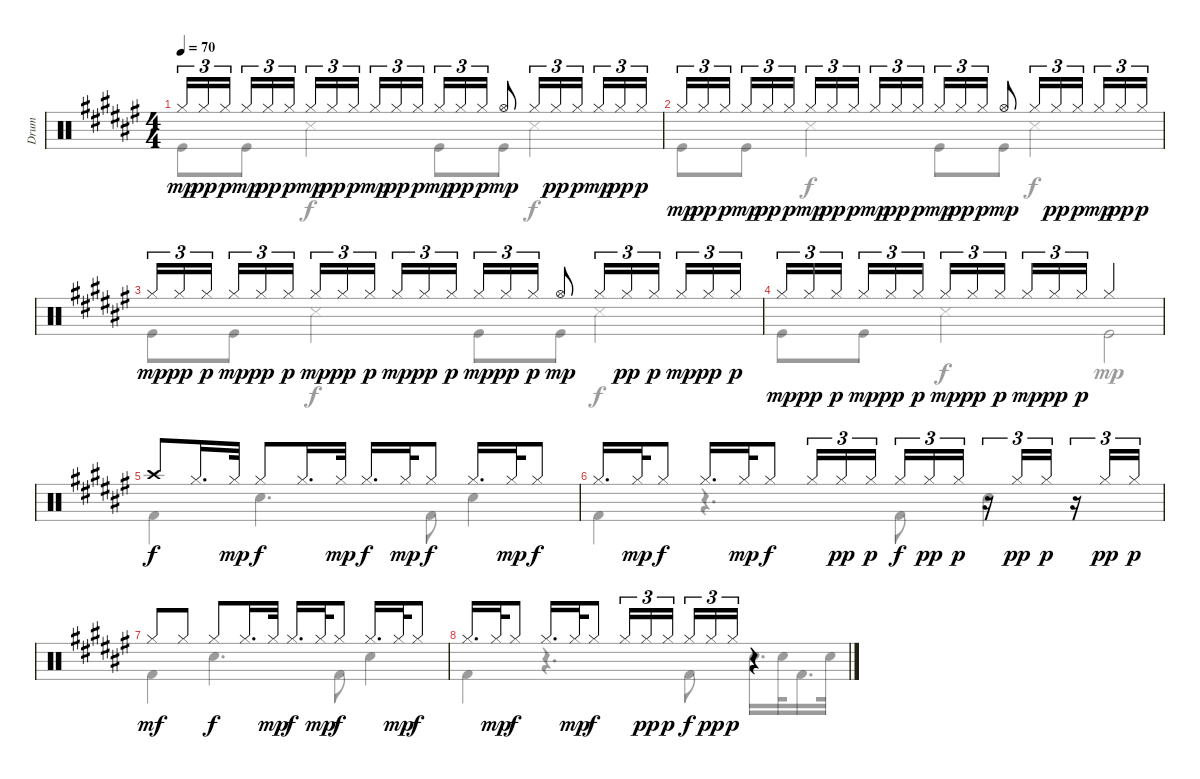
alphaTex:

\track ("Drum" "Drum") {instrument percussion}
\staff {score}
\articulation defaults
\voice
\ts (4 4)
\tempo 70
\clef neutral
\ks f# "Hi-Hat (closed)".16{tu (3 2) dy mp} "Hi-Hat (closed)".16{tu (3 2) dy pp} "Hi-Hat (closed)".16{tu (3 2) dy p beam splitsecondary} "Hi-Hat (closed)".16{tu (3 2) dy mp} "Hi-Hat (closed)".16{tu (3 2) dy pp} "Hi-Hat (closed)".16{tu (3 2) dy p} "Hi-Hat (closed)".16{tu (3 2) dy mp} "Hi-Hat (closed)".16{tu (3 2) dy pp} "Hi-Hat (closed)".16{tu (3 2) dy p beam splitsecondary} "Hi-Hat (closed)".16{tu (3 2) dy mp} "Hi-Hat (closed)".16{tu (3 2) dy pp} "Hi-Hat (closed)".16{tu (3 2) dy p} "Hi-Hat (closed)".16{tu (3 2) dy mp} "Hi-Hat (closed)".16{tu (3 2) dy pp} "Hi-Hat (closed)".16{tu (3 2) dy p} "Hi-Hat (open)".8{dy mp} "Hi-Hat (closed)".16{tu (3 2)} "Hi-Hat (closed)".16{tu (3 2) dy pp} "Hi-Hat (closed)".16{tu (3 2) dy p beam splitsecondary} "Hi-Hat (closed)".16{tu (3 2) dy mp} "Hi-Hat (closed)".16{tu (3 2) dy pp} "Hi-Hat (closed)".16{tu (3 2) dy p}
|
"Hi-Hat (closed)".16{tu (3 2) dy mp} "Hi-Hat (closed)".16{tu (3 2) dy pp} "Hi-Hat (closed)".16{tu (3 2) dy p beam splitsecondary} "Hi-Hat (closed)".16{tu (3 2) dy mp} "Hi-Hat (closed)".16{tu (3 2) dy pp} "Hi-Hat (closed)".16{tu (3 2) dy p} "Hi-Hat (closed)".16{tu (3 2) dy mp} "Hi-Hat (closed)".16{tu (3 2) dy pp} "Hi-Hat (closed)".16{tu (3 2) dy p beam splitsecondary} "Hi-Hat (closed)".16{tu (3 2) dy mp} "Hi-Hat (closed)".16{tu (3 2) dy pp} "Hi-Hat (closed)".16{tu (3 2) dy p} "Hi-Hat (closed)".16{tu (3 2) dy mp} "Hi-Hat (closed)".16{tu (3 2) dy pp} "Hi-Hat (closed)".16{tu (3 2) dy p} "Hi-Hat (open)".8{dy mp} "Hi-Hat (closed)".16{tu (3 2)} "Hi-Hat (closed)".16{tu (3 2) dy pp} "Hi-Hat (closed)".16{tu (3 2) dy p beam splitsecondary} "Hi-Hat (closed)".16{tu (3 2) dy mp} "Hi-Hat (closed)".16{tu (3 2) dy pp} "Hi-Hat (closed)".16{tu (3 2) dy p} |
"Hi-Hat (closed)".16{tu (3 2) dy mp} "Hi-Hat (closed)".16{tu (3 2) dy pp} "Hi-Hat (closed)".16{tu (3 2) dy p beam splitsecondary} "Hi-Hat (closed)".16{tu (3 2) dy mp} "Hi-Hat (closed)".16{tu (3 2) dy pp} "Hi-Hat (closed)".16{tu (3 2) dy p} "Hi-Hat (closed)".16{tu (3 2) dy mp} "Hi-Hat (closed)".16{tu (3 2) dy pp} "Hi-Hat (closed)".16{tu (3 2) dy p beam splitsecondary} "Hi-Hat (closed)".16{tu (3 2) dy mp} "Hi-Hat (closed)".16{tu (3 2) dy pp} "Hi-Hat (closed)".16{tu (3 2) dy p} "Hi-Hat (closed)".16{tu (3 2) dy mp} "Hi-Hat (closed)".16{tu (3 2) dy pp} "Hi-Hat (closed)".16{tu (3 2) dy p} "Hi-Hat (open)".8{dy mp} "Hi-Hat (closed)".16{tu (3 2)} "Hi-Hat (closed)".16{tu (3 2) dy pp} "Hi-Hat (closed)".16{tu (3 2) dy p beam splitsecondary} "Hi-Hat (closed)".16{tu (3 2) dy mp} "Hi-Hat (closed)".16{tu (3 2) dy pp} "Hi-Hat (closed)".16{tu (3 2) dy p} |
"Hi-Hat (closed)".16{tu (3 2) dy mp} "Hi-Hat (closed)".16{tu (3 2) dy pp} "Hi-Hat (closed)".16{tu (3 2) dy p beam splitsecondary} "Hi-Hat (closed)".16{tu (3 2) dy mp} "Hi-Hat (closed)".16{tu (3 2) dy pp} "Hi-Hat (closed)".16{tu (3 2) dy p} "Hi-Hat (closed)".16{tu (3 2) dy mp} "Hi-Hat (closed)".16{tu (3 2) dy pp} "Hi-Hat (closed)".16{tu (3 2) dy p beam splitsecondary} "Hi-Hat (closed)".16{tu (3 2) dy mp} "Hi-Hat (closed)".16{tu (3 2) dy pp} "Hi-Hat (closed)".16{tu (3 2) dy p} "Hi-Hat (closed)".2 |
"Crash high (hit)".8{dy f} "Hi-Hat (closed)".16{d} "Hi-Hat (closed)".32{dy mp} "Hi-Hat (closed)".8{dy f} "Hi-Hat (closed)".16{d} "Hi-Hat (closed)".32{dy mp} "Hi-Hat (closed)".16{d dy f} "Hi-Hat (closed)".32{dy mp} "Hi-Hat (closed)".8{dy f} "Hi-Hat (closed)".16{d} "Hi-Hat (closed)".32{dy mp} "Hi-Hat (closed)".8{dy f} |
"Hi-Hat (closed)".16{d} "Hi-Hat (closed)".32{dy mp} "Hi-Hat (closed)".8{dy f} "Hi-Hat (closed)".16{d} "Hi-Hat (closed)".32{dy mp} "Hi-Hat (closed)".8{dy f} "Hi-Hat (closed)".16{tu (3 2)} "Hi-Hat (closed)".16{tu (3 2) dy pp} "Hi-Hat (closed)".16{tu (3 2) dy p beam splitsecondary} "Hi-Hat (closed)".16{tu (3 2) dy f} "Hi-Hat (closed)".16{tu (3 2) dy pp} "Hi-Hat (closed)".16{tu (3 2) dy p} r.16{tu (3 2)} "Hi-Hat (closed)".16{tu (3 2) dy pp} "Hi-Hat (closed)".16{tu (3 2) dy p} r.16{tu (3 2)} "Hi-Hat (closed)".16{tu (3 2) dy pp} "Hi-Hat (closed)".16{tu (3 2) dy p} |
"Hi-Hat (closed)".8{dy mf} "Hi-Hat (closed)".8 "Hi-Hat (closed)".8{dy f} "Hi-Hat (closed)".16{d} "Hi-Hat (closed)".32{dy mp} "Hi-Hat (closed)".16{d dy f} "Hi-Hat (closed)".32{dy mp} "Hi-Hat (closed)".8{dy f} "Hi-Hat (closed)".16{d} "Hi-Hat (closed)".32{dy mp} "Hi-Hat (closed)".8{dy f} |
"Hi-Hat (closed)".16{d} "Hi-Hat (closed)".32{dy mp} "Hi-Hat (closed)".8{dy f} "Hi-Hat (closed)".16{d} "Hi-Hat (closed)".32{dy mp} "Hi-Hat (closed)".8{dy f} "Hi-Hat (closed)".16{tu (3 2)} "Hi-Hat (closed)".16{tu (3 2) dy pp} "Hi-Hat (closed)".16{tu (3 2) dy p beam splitsecondary} "Hi-Hat (closed)".16{tu (3 2) dy f} "Hi-Hat (closed)".16{tu (3 2) dy pp} "Hi-Hat (closed)".16{tu (3 2) dy p} r.4
\voice
\clef neutral
\ottava regular
\simile none
\ks f# "Kick (hit)".8{dy mp} "Kick (hit)".8 "Metronome (hit)".4{dy f} "Kick (hit)".8{dy mp} "Kick (hit)".8 "Metronome (hit)".4{dy f}
|
"Kick (hit)".8{dy mp} "Kick (hit)".8 "Metronome (hit)".4{dy f} "Kick (hit)".8{dy mp} "Kick (hit)".8 "Metronome (hit)".4{dy f} |
"Kick (hit)".8{dy mp} "Kick (hit)".8 "Metronome (hit)".4{dy f} "Kick (hit)".8{dy mp} "Kick (hit)".8 "Metronome (hit)".4{dy f} |
"Kick (hit)".8{dy mp} "Kick (hit)".8 "Metronome (hit)".4{dy f} "Kick (hit)".2{dy mp} |
"Kick (hit) 2".4{dy f} "Snare (hit) 2".4{d} "Kick (hit) 2".8 "Snare (hit) 2".4 |
"Kick (hit) 2".4 r.4{d} "Kick (hit) 2".8 "Snare (hit) 2".4 |
"Kick (hit) 2".4 "Snare (hit) 2".4{d} "Kick (hit) 2".8 "Snare (hit) 2".4 |
"Kick (hit) 2".4 r.4{d} "Kick (hit) 2".8 "Snare (hit) 2".16{d} "Snare (hit) 2".32 "Kick (hit) 2".16{d} "Snare (hit) 2".32
